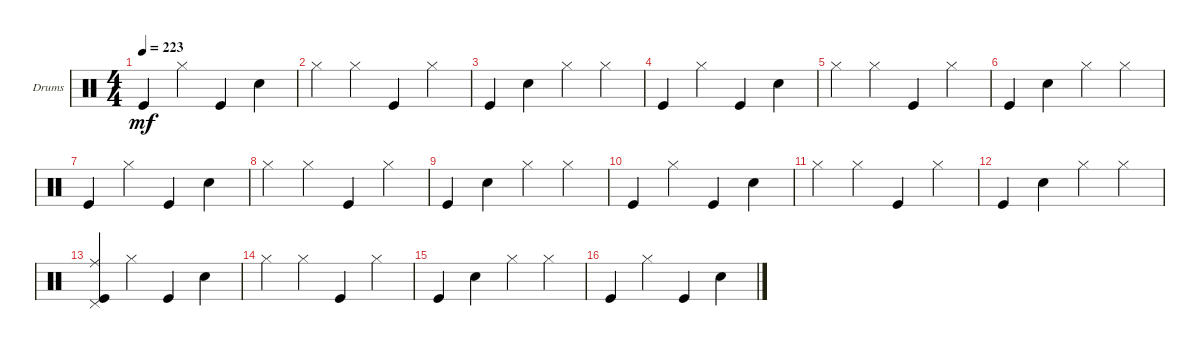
\defaultSystemsLayout 4
\bracketExtendMode groupsimilarinstruments
\firstSystemTrackNameOrientation horizontal
\otherSystemsTrackNameOrientation horizontal
\track ("Drumkit" "Drums") {instrument percussion}
\staff {score}
\articulation defaults
\ts (4 4)
\tempo 223
\clef neutral
\ks c "Kick (hit)".4{dy mf} "Hi-Hat (closed)".4 "Kick (hit)".4 "Snare (hit) 2".4
|
"Hi-Hat (closed)".4 "Hi-Hat (closed)".4 "Kick (hit)".4 "Hi-Hat (closed)".4 |
"Kick (hit)".4 "Snare (hit) 2".4 "Hi-Hat (closed)".4 "Hi-Hat (closed)".4 |
"Kick (hit)".4 "Hi-Hat (closed)".4 "Kick (hit)".4 "Snare (hit) 2".4 |
"Hi-Hat (closed)".4 "Hi-Hat (closed)".4 "Kick (hit)".4 "Hi-Hat (closed)".4 |
"Kick (hit)".4 "Snare (hit) 2".4 "Hi-Hat (closed)".4 "Hi-Hat (closed)".4 |
"Kick (hit)".4 "Hi-Hat (closed)".4 "Kick (hit)".4 "Snare (hit) 2".4 |
"Hi-Hat (closed)".4 "Hi-Hat (closed)".4 "Kick (hit)".4 "Hi-Hat (closed)".4 |
"Kick (hit)".4 "Snare (hit) 2".4 "Hi-Hat (closed)".4 "Hi-Hat (closed)".4 |
"Kick (hit)".4 "Hi-Hat (closed)".4 "Kick (hit)".4 "Snare (hit) 2".4 |
"Hi-Hat (closed)".4 "Hi-Hat (closed)".4 "Kick (hit)".4 "Hi-Hat (closed)".4 |
"Kick (hit)".4 "Snare (hit) 2".4 "Hi-Hat (closed)".4 "Hi-Hat (closed)".4 |
("Kick (hit)" "Ride (middle)" "Pedal Hi-Hat (hit)").4 "Hi-Hat (closed)".4 "Kick (hit)".4 "Snare (hit) 2".4 |
"Hi-Hat (closed)".4 "Hi-Hat (closed)".4 "Kick (hit)".4 "Hi-Hat (closed)".4 |
"Kick (hit)".4 "Snare (hit) 2".4 "Hi-Hat (closed)".4 "Hi-Hat (closed)".4 |
"Kick (hit)".4 "Hi-Hat (closed)".4 "Kick (hit)".4 "Snare (hit) 2".4
